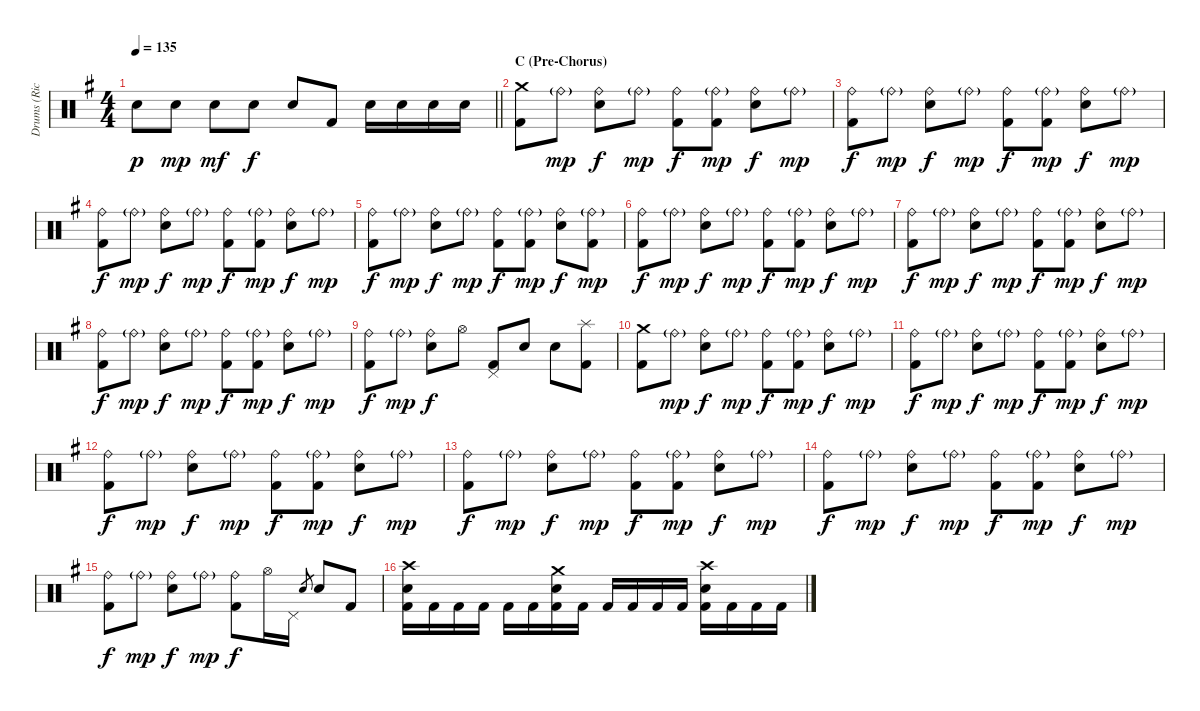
\track ("Drums (Richard Evensand)" "Drums (Ric") {instrument percussion}
\staff {score}
\articulation defaults
\ts (4 4)
\tempo 135
\clef neutral
\barLineRight lightlight
\ks eminor "Electric Snare (hit)".8{dy p} "Electric Snare (hit)".8{dy mp} "Electric Snare (hit)".8{dy mf} "Electric Snare (hit)".8{dy f} "Electric Snare (hit)".8 "Kick (hit) 2".8 "Electric Snare (hit)".16 "Electric Snare (hit)".16 "Electric Snare (hit)".16 "Electric Snare (hit)".16
|
\section ("" "C (Pre-Chorus)")
("Crash medium (hit)" "Kick (hit) 2").8 "Ride (bell)"{g}.8{dy mp} ("Ride (bell)" "Electric Snare (hit)").8{dy f} "Ride (bell)"{g}.8{dy mp} ("Ride (bell)" "Kick (hit) 2").8{dy f} ("Ride (bell)"{g} "Kick (hit) 2").8{dy mp} ("Ride (bell)" "Electric Snare (hit)").8{dy f} "Ride (bell)"{g}.8{dy mp} |
("Ride (bell)" "Kick (hit) 2").8{dy f} "Ride (bell)"{g}.8{dy mp} ("Ride (bell)" "Electric Snare (hit)").8{dy f} "Ride (bell)"{g}.8{dy mp} ("Ride (bell)" "Kick (hit) 2").8{dy f} ("Ride (bell)"{g} "Kick (hit) 2").8{dy mp} ("Ride (bell)" "Electric Snare (hit)").8{dy f} "Ride (bell)"{g}.8{dy mp} |
("Ride (bell)" "Kick (hit) 2").8{dy f} "Ride (bell)"{g}.8{dy mp} ("Ride (bell)" "Electric Snare (hit)").8{dy f} "Ride (bell)"{g}.8{dy mp} ("Ride (bell)" "Kick (hit) 2").8{dy f} ("Ride (bell)"{g} "Kick (hit) 2").8{dy mp} ("Ride (bell)" "Electric Snare (hit)").8{dy f} "Ride (bell)"{g}.8{dy mp} |
("Ride (bell)" "Kick (hit) 2").8{dy f} "Ride (bell)"{g}.8{dy mp} ("Ride (bell)" "Electric Snare (hit)").8{dy f} "Ride (bell)"{g}.8{dy mp} ("Ride (bell)" "Kick (hit) 2").8{dy f} ("Ride (bell)"{g} "Kick (hit) 2").8{dy mp} ("Ride (bell)" "Electric Snare (hit)").8{dy f} ("Ride (bell)"{g} "Kick (hit) 2").8{dy mp} |
("Ride (bell)" "Kick (hit) 2").8{dy f} "Ride (bell)"{g}.8{dy mp} ("Ride (bell)" "Electric Snare (hit)").8{dy f} "Ride (bell)"{g}.8{dy mp} ("Ride (bell)" "Kick (hit) 2").8{dy f} ("Ride (bell)"{g} "Kick (hit) 2").8{dy mp} ("Ride (bell)" "Electric Snare (hit)").8{dy f} "Ride (bell)"{g}.8{dy mp} |
("Ride (bell)" "Kick (hit) 2").8{dy f} "Ride (bell)"{g}.8{dy mp} ("Ride (bell)" "Electric Snare (hit)").8{dy f} "Ride (bell)"{g}.8{dy mp} ("Ride (bell)" "Kick (hit) 2").8{dy f} ("Ride (bell)"{g} "Kick (hit) 2").8{dy mp} ("Ride (bell)" "Electric Snare (hit)").8{dy f} "Ride (bell)"{g}.8{dy mp} |
("Ride (bell)" "Kick (hit) 2").8{dy f} "Ride (bell)"{g}.8{dy mp} ("Ride (bell)" "Electric Snare (hit)").8{dy f} "Ride (bell)"{g}.8{dy mp} ("Ride (bell)" "Kick (hit) 2").8{dy f} ("Ride (bell)"{g} "Kick (hit) 2").8{dy mp} ("Ride (bell)" "Electric Snare (hit)").8{dy f} "Ride (bell)"{g}.8{dy mp} |
("Ride (bell)" "Kick (hit) 2").8{dy f} "Ride (bell)"{g}.8{dy mp} ("Ride (bell)" "Electric Snare (hit)").8{dy f} "Hi-Hat (open)".8 ("Pedal Hi-Hat (hit)" "Kick (hit) 2").8 "Electric Snare (hit)".8 "Electric Snare (hit)".8 ("Splash (hit)" "Kick (hit) 2").8 |
("Crash medium (hit)" "Kick (hit) 2").8 "Ride (bell)"{g}.8{dy mp} ("Ride (bell)" "Electric Snare (hit)").8{dy f} "Ride (bell)"{g}.8{dy mp} ("Ride (bell)" "Kick (hit) 2").8{dy f} ("Ride (bell)"{g} "Kick (hit) 2").8{dy mp} ("Ride (bell)" "Electric Snare (hit)").8{dy f} "Ride (bell)"{g}.8{dy mp} |
("Ride (bell)" "Kick (hit) 2").8{dy f} "Ride (bell)"{g}.8{dy mp} ("Ride (bell)" "Electric Snare (hit)").8{dy f} "Ride (bell)"{g}.8{dy mp} ("Ride (bell)" "Kick (hit) 2").8{dy f} ("Ride (bell)"{g} "Kick (hit) 2").8{dy mp} ("Ride (bell)" "Electric Snare (hit)").8{dy f} "Ride (bell)"{g}.8{dy mp} |
("Ride (bell)" "Kick (hit) 2").8{dy f} "Ride (bell)"{g}.8{dy mp} ("Ride (bell)" "Electric Snare (hit)").8{dy f} "Ride (bell)"{g}.8{dy mp} ("Ride (bell)" "Kick (hit) 2").8{dy f} ("Ride (bell)"{g} "Kick (hit) 2").8{dy mp} ("Ride (bell)" "Electric Snare (hit)").8{dy f} "Ride (bell)"{g}.8{dy mp} |
("Ride (bell)" "Kick (hit) 2").8{dy f} "Ride (bell)"{g}.8{dy mp} ("Ride (bell)" "Electric Snare (hit)").8{dy f} "Ride (bell)"{g}.8{dy mp} ("Ride (bell)" "Kick (hit) 2").8{dy f} ("Ride (bell)"{g} "Kick (hit) 2").8{dy mp} ("Ride (bell)" "Electric Snare (hit)").8{dy f} "Ride (bell)"{g}.8{dy mp} |
("Ride (bell)" "Kick (hit) 2").8{dy f} "Ride (bell)"{g}.8{dy mp} ("Ride (bell)" "Electric Snare (hit)").8{dy f} "Ride (bell)"{g}.8{dy mp} ("Ride (bell)" "Kick (hit) 2").8{dy f} ("Ride (bell)"{g} "Kick (hit) 2").8{dy mp} ("Ride (bell)" "Electric Snare (hit)").8{dy f} "Ride (bell)"{g}.8{dy mp} |
("Ride (bell)" "Kick (hit) 2").8{dy f} "Ride (bell)"{g}.8{dy mp} ("Ride (bell)" "Electric Snare (hit)").8{dy f} "Ride (bell)"{g}.8{dy mp} ("Ride (bell)" "Kick (hit) 2").8{dy f} "Hi-Hat (open)".16 "Pedal Hi-Hat (hit)".16 "Electric Snare (hit)".8{gr} "Electric Snare (hit)".8 "Kick (hit) 2".8 |
("Crash high (hit)" "Electric Snare (hit)" "Kick (hit) 2").16 "Kick (hit) 2".16 "Kick (hit) 2".16 "Kick (hit) 2".16 "Kick (hit) 2".16 "Kick (hit) 2".16 ("Crash medium (hit)" "Electric Snare (hit)" "Kick (hit) 2").16 "Kick (hit) 2".16 "Kick (hit) 2".16 "Kick (hit) 2".16 "Kick (hit) 2".16 "Kick (hit) 2".16 ("Crash high (hit)" "Electric Snare (hit)" "Kick (hit) 2").16 "Kick (hit) 2".16 "Kick (hit) 2".16 "Kick (hit) 2".16
